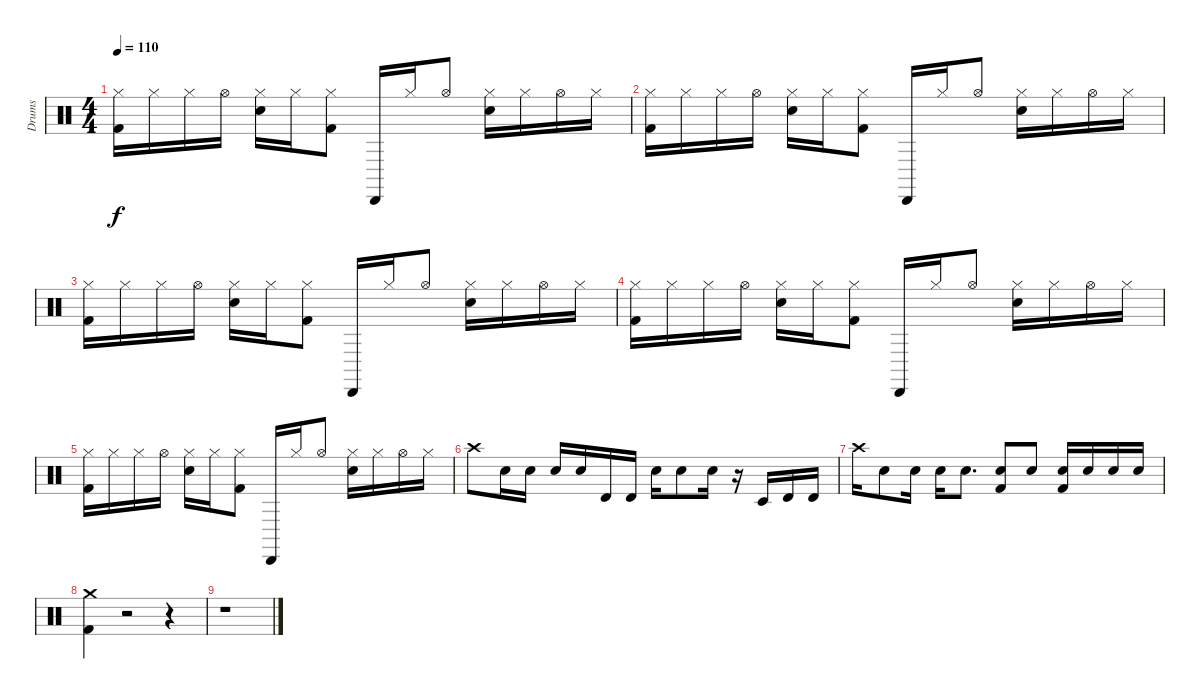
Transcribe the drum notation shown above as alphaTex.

\track ("Drums" "Drums") {instrument percussion}
\staff {score}
\articulation defaults
\ts (4 4)
\tempo 110
\clef neutral
\ks c
("Kick (hit) 2" "Hi-Hat (closed)").16{dy f} "Hi-Hat (closed)".16 "Hi-Hat (closed)".16 "Hi-Hat (open)".16 ("Snare (hit) 2" "Hi-Hat (closed)").16 "Hi-Hat (closed)".16 ("Kick (hit) 2" "Hi-Hat (closed)").8 "Cabasa (hit)".16 "Hi-Hat (closed)".16 "Hi-Hat (open)".8 ("Snare (hit) 2" "Hi-Hat (closed)").16 "Hi-Hat (closed)".16 "Hi-Hat (open)".16 "Hi-Hat (closed)".16 |
("Kick (hit) 2" "Hi-Hat (closed)").16 "Hi-Hat (closed)".16 "Hi-Hat (closed)".16 "Hi-Hat (open)".16 ("Snare (hit) 2" "Hi-Hat (closed)").16 "Hi-Hat (closed)".16 ("Kick (hit) 2" "Hi-Hat (closed)").8 "Cabasa (hit)".16 "Hi-Hat (closed)".16 "Hi-Hat (open)".8 ("Snare (hit) 2" "Hi-Hat (closed)").16 "Hi-Hat (closed)".16 "Hi-Hat (open)".16 "Hi-Hat (closed)".16 |
("Kick (hit) 2" "Hi-Hat (closed)").16 "Hi-Hat (closed)".16 "Hi-Hat (closed)".16 "Hi-Hat (open)".16 ("Snare (hit) 2" "Hi-Hat (closed)").16 "Hi-Hat (closed)".16 ("Kick (hit) 2" "Hi-Hat (closed)").8 "Cabasa (hit)".16 "Hi-Hat (closed)".16 "Hi-Hat (open)".8 ("Snare (hit) 2" "Hi-Hat (closed)").16 "Hi-Hat (closed)".16 "Hi-Hat (open)".16 "Hi-Hat (closed)".16 |
("Kick (hit) 2" "Hi-Hat (closed)").16 "Hi-Hat (closed)".16 "Hi-Hat (closed)".16 "Hi-Hat (open)".16 ("Snare (hit) 2" "Hi-Hat (closed)").16 "Hi-Hat (closed)".16 ("Kick (hit) 2" "Hi-Hat (closed)").8 "Cabasa (hit)".16 "Hi-Hat (closed)".16 "Hi-Hat (open)".8 ("Snare (hit) 2" "Hi-Hat (closed)").16 "Hi-Hat (closed)".16 "Hi-Hat (open)".16 "Hi-Hat (closed)".16 |
("Kick (hit) 2" "Hi-Hat (closed)").16 "Hi-Hat (closed)".16 "Hi-Hat (closed)".16 "Hi-Hat (open)".16 ("Snare (hit) 2" "Hi-Hat (closed)").16 "Hi-Hat (closed)".16 ("Kick (hit) 2" "Hi-Hat (closed)").8 "Cabasa (hit)".16 "Hi-Hat (closed)".16 "Hi-Hat (open)".8 ("Snare (hit) 2" "Hi-Hat (closed)").16 "Hi-Hat (closed)".16 "Hi-Hat (open)".16 "Hi-Hat (closed)".16 |
"Crash high (hit)".8 "Electric Snare (hit)".16 "Electric Snare (hit)".16 "Electric Snare (hit)".16 "Electric Snare (hit)".16 "Timbale high (hit)".16 "Timbale high (hit)".16 "Electric Snare (hit)".16 "Electric Snare (hit)".8 "Electric Snare (hit)".16 r.16 "Timbale low (hit)".16 "Timbale high (hit)".16 "Timbale high (hit)".16 |
"Crash high (hit)".16 "Electric Snare (hit)".8 "Electric Snare (hit)".16 "Electric Snare (hit)".16 "Electric Snare (hit)".8{d} ("Kick (hit) 2" "Snare (hit) 2").8 "Snare (hit) 2".8 ("Kick (hit) 2" "Snare (hit) 2").16 "Snare (hit) 2".16 "Snare (hit) 2".16 "Snare (hit) 2".16 |
("Kick (hit) 2" "Crash medium (hit)").4 r.2 r.4 |
r.1
